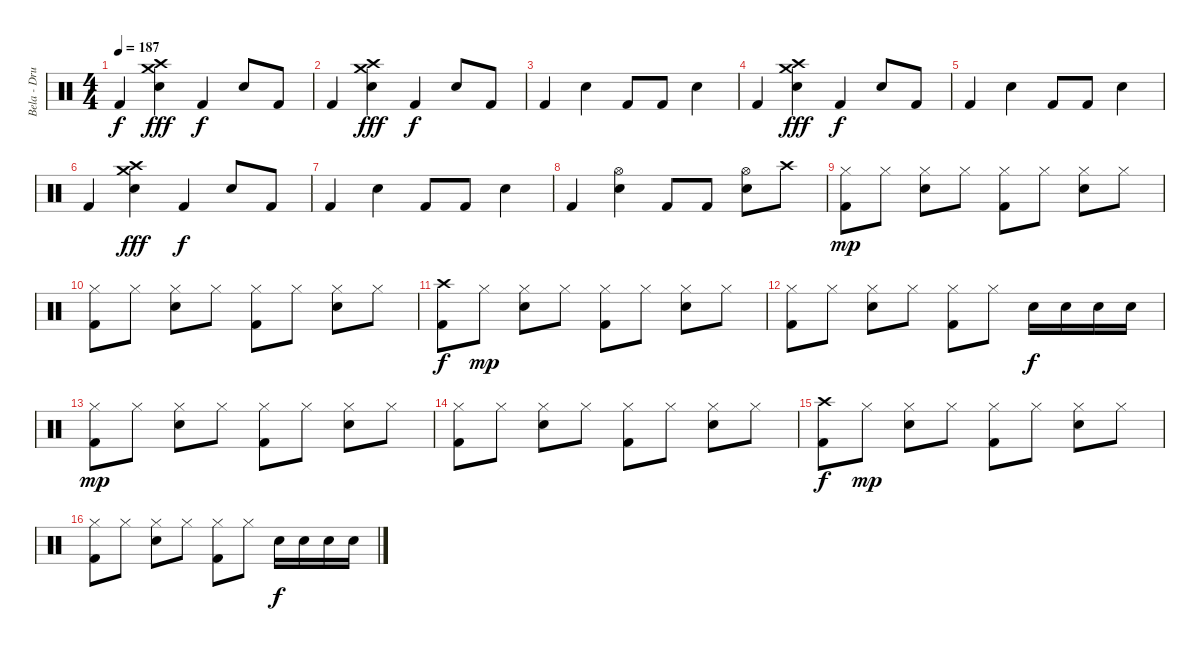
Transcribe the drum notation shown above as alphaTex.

\track ("Bela - Drums" "Bela - Dru") {instrument percussion}
\staff {score}
\articulation defaults
\ts (4 4)
\tempo 187
\clef neutral
\ks c "Kick (hit) 2".4{dy f}
("Crash medium (hit)" "Crash high (hit)" "Snare (hit) 2").4{dy fff} "Kick (hit) 2".4{dy f} "Snare (hit) 2".8 "Kick (hit) 2".8 |
"Kick (hit) 2".4 ("Crash medium (hit)" "Crash high (hit)" "Snare (hit) 2").4{dy fff} "Kick (hit) 2".4{dy f} "Snare (hit) 2".8 "Kick (hit) 2".8 |
"Kick (hit) 2".4 "Snare (hit) 2".4 "Kick (hit) 2".8 "Kick (hit) 2".8 "Snare (hit) 2".4 |
"Kick (hit) 2".4 ("Crash medium (hit)" "Crash high (hit)" "Snare (hit) 2").4{dy fff} "Kick (hit) 2".4{dy f} "Snare (hit) 2".8 "Kick (hit) 2".8 |
"Kick (hit) 2".4 "Snare (hit) 2".4 "Kick (hit) 2".8 "Kick (hit) 2".8 "Snare (hit) 2".4 |
"Kick (hit) 2".4 ("Crash medium (hit)" "Crash high (hit)" "Snare (hit) 2").4{dy fff} "Kick (hit) 2".4{dy f} "Snare (hit) 2".8 "Kick (hit) 2".8 |
"Kick (hit) 2".4 "Snare (hit) 2".4 "Kick (hit) 2".8 "Kick (hit) 2".8 "Snare (hit) 2".4 |
"Kick (hit) 2".4 ("Hi-Hat (open)" "Snare (hit) 2").4 "Kick (hit) 2".8 "Kick (hit) 2".8 ("Hi-Hat (open)" "Snare (hit) 2").8 "Crash high (hit)".8 |
("Hi-Hat (closed)" "Kick (hit) 2").8{dy mp} "Hi-Hat (closed)".8 ("Hi-Hat (closed)" "Snare (hit) 2").8 "Hi-Hat (closed)".8 ("Hi-Hat (closed)" "Kick (hit) 2").8 "Hi-Hat (closed)".8 ("Hi-Hat (closed)" "Snare (hit) 2").8 "Hi-Hat (closed)".8 |
("Hi-Hat (closed)" "Kick (hit) 2").8 "Hi-Hat (closed)".8 ("Hi-Hat (closed)" "Snare (hit) 2").8 "Hi-Hat (closed)".8 ("Hi-Hat (closed)" "Kick (hit) 2").8 "Hi-Hat (closed)".8 ("Hi-Hat (closed)" "Snare (hit) 2").8 "Hi-Hat (closed)".8 |
("Crash high (hit)" "Kick (hit) 2").8{dy f} "Hi-Hat (closed)".8{dy mp} ("Hi-Hat (closed)" "Snare (hit) 2").8 "Hi-Hat (closed)".8 ("Hi-Hat (closed)" "Kick (hit) 2").8 "Hi-Hat (closed)".8 ("Hi-Hat (closed)" "Snare (hit) 2").8 "Hi-Hat (closed)".8 |
("Hi-Hat (closed)" "Kick (hit) 2").8 "Hi-Hat (closed)".8 ("Hi-Hat (closed)" "Snare (hit) 2").8 "Hi-Hat (closed)".8 ("Hi-Hat (closed)" "Kick (hit) 2").8 "Hi-Hat (closed)".8 "Snare (hit) 2".16{dy f} "Snare (hit) 2".16 "Snare (hit) 2".16 "Snare (hit) 2".16 |
("Hi-Hat (closed)" "Kick (hit) 2").8{dy mp} "Hi-Hat (closed)".8 ("Hi-Hat (closed)" "Snare (hit) 2").8 "Hi-Hat (closed)".8 ("Hi-Hat (closed)" "Kick (hit) 2").8 "Hi-Hat (closed)".8 ("Hi-Hat (closed)" "Snare (hit) 2").8 "Hi-Hat (closed)".8 |
("Hi-Hat (closed)" "Kick (hit) 2").8 "Hi-Hat (closed)".8 ("Hi-Hat (closed)" "Snare (hit) 2").8 "Hi-Hat (closed)".8 ("Hi-Hat (closed)" "Kick (hit) 2").8 "Hi-Hat (closed)".8 ("Hi-Hat (closed)" "Snare (hit) 2").8 "Hi-Hat (closed)".8 |
("Crash high (hit)" "Kick (hit) 2").8{dy f} "Hi-Hat (closed)".8{dy mp} ("Hi-Hat (closed)" "Snare (hit) 2").8 "Hi-Hat (closed)".8 ("Hi-Hat (closed)" "Kick (hit) 2").8 "Hi-Hat (closed)".8 ("Hi-Hat (closed)" "Snare (hit) 2").8 "Hi-Hat (closed)".8 |
("Hi-Hat (closed)" "Kick (hit) 2").8 "Hi-Hat (closed)".8 ("Hi-Hat (closed)" "Snare (hit) 2").8 "Hi-Hat (closed)".8 ("Hi-Hat (closed)" "Kick (hit) 2").8 "Hi-Hat (closed)".8 "Snare (hit) 2".16{dy f} "Snare (hit) 2".16 "Snare (hit) 2".16 "Snare (hit) 2".16
